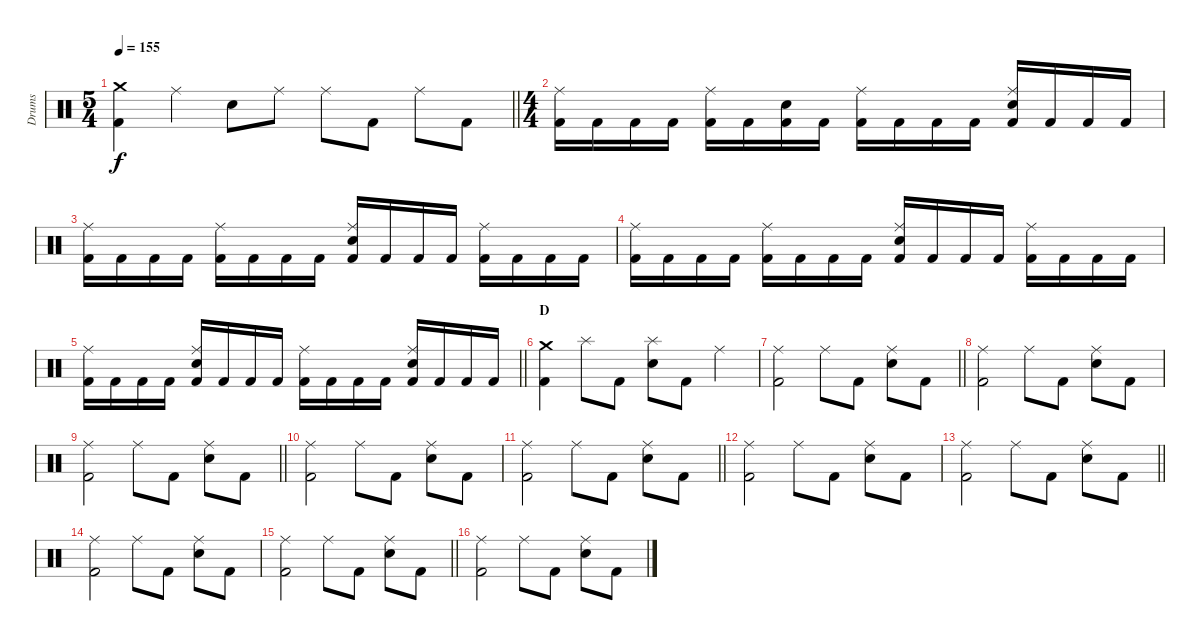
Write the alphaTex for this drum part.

\track ("Drums" "Drums") {instrument percussion}
\staff {score}
\articulation defaults
\ts (5 4)
\tempo 155
\clef neutral
\barLineRight lightlight
\ks c
("Crash medium (hit)" "Kick (hit) 2").4{dy f} "Ride (middle)".4 "Electric Snare (hit)".8 "Ride (middle)".8 "Ride (middle)".8 "Kick (hit) 2".8 "Ride (middle)".8 "Kick (hit) 2".8 |
\ts (4 4)
\section ("" "")
("Ride (middle)" "Kick (hit) 2").16 "Kick (hit) 2".16 "Kick (hit) 2".16 "Kick (hit) 2".16 ("Ride (middle)" "Kick (hit) 2").16 "Kick (hit) 2".16 ("Electric Snare (hit)" "Kick (hit) 2").16 "Kick (hit) 2".16 ("Ride (middle)" "Kick (hit) 2").16 "Kick (hit) 2".16 "Kick (hit) 2".16 "Kick (hit) 2".16 ("Ride (middle)" "Electric Snare (hit)" "Kick (hit) 2").16 "Kick (hit) 2".16 "Kick (hit) 2".16 "Kick (hit) 2".16 |
("Ride (middle)" "Kick (hit) 2").16 "Kick (hit) 2".16 "Kick (hit) 2".16 "Kick (hit) 2".16 ("Ride (middle)" "Kick (hit) 2").16 "Kick (hit) 2".16 "Kick (hit) 2".16 "Kick (hit) 2".16 ("Ride (middle)" "Electric Snare (hit)" "Kick (hit) 2").16 "Kick (hit) 2".16 "Kick (hit) 2".16 "Kick (hit) 2".16 ("Ride (middle)" "Kick (hit) 2").16 "Kick (hit) 2".16 "Kick (hit) 2".16 "Kick (hit) 2".16 |
("Ride (middle)" "Kick (hit) 2").16 "Kick (hit) 2".16 "Kick (hit) 2".16 "Kick (hit) 2".16 ("Ride (middle)" "Kick (hit) 2").16 "Kick (hit) 2".16 "Kick (hit) 2".16 "Kick (hit) 2".16 ("Ride (middle)" "Electric Snare (hit)" "Kick (hit) 2").16 "Kick (hit) 2".16 "Kick (hit) 2".16 "Kick (hit) 2".16 ("Ride (middle)" "Kick (hit) 2").16 "Kick (hit) 2".16 "Kick (hit) 2".16 "Kick (hit) 2".16 |
\barLineRight lightlight
("Ride (middle)" "Kick (hit) 2").16 "Kick (hit) 2".16 "Kick (hit) 2".16 "Kick (hit) 2".16 ("Ride (middle)" "Electric Snare (hit)" "Kick (hit) 2").16 "Kick (hit) 2".16 "Kick (hit) 2".16 "Kick (hit) 2".16 ("Ride (middle)" "Kick (hit) 2").16 "Kick (hit) 2".16 "Kick (hit) 2".16 "Kick (hit) 2".16 ("Ride (middle)" "Electric Snare (hit)" "Kick (hit) 2").16 "Kick (hit) 2".16 "Kick (hit) 2".16 "Kick (hit) 2".16 |
\section ("" "D")
("Crash medium (hit)" "Kick (hit) 2").4 "Splash (hit)".8 "Kick (hit) 2".8 ("Splash (hit)" "Electric Snare (hit)").8 "Kick (hit) 2".8 "Ride (middle)".4 |
\barLineRight lightlight
("Ride (middle)" "Kick (hit) 2").2 "Ride (middle)".8 "Kick (hit) 2".8 ("Ride (middle)" "Electric Snare (hit)").8 "Kick (hit) 2".8 |
("Ride (middle)" "Kick (hit) 2").2 "Ride (middle)".8 "Kick (hit) 2".8 ("Ride (middle)" "Electric Snare (hit)").8 "Kick (hit) 2".8 |
\barLineRight lightlight
("Ride (middle)" "Kick (hit) 2").2 "Ride (middle)".8 "Kick (hit) 2".8 ("Ride (middle)" "Electric Snare (hit)").8 "Kick (hit) 2".8 |
\section ("" "")
("Ride (middle)" "Kick (hit) 2").2 "Ride (middle)".8 "Kick (hit) 2".8 ("Ride (middle)" "Electric Snare (hit)").8 "Kick (hit) 2".8 |
\barLineRight lightlight
("Ride (middle)" "Kick (hit) 2").2 "Ride (middle)".8 "Kick (hit) 2".8 ("Ride (middle)" "Electric Snare (hit)").8 "Kick (hit) 2".8 |
("Ride (middle)" "Kick (hit) 2").2 "Ride (middle)".8 "Kick (hit) 2".8 ("Ride (middle)" "Electric Snare (hit)").8 "Kick (hit) 2".8 |
\barLineRight lightlight
("Ride (middle)" "Kick (hit) 2").2 "Ride (middle)".8 "Kick (hit) 2".8 ("Ride (middle)" "Electric Snare (hit)").8 "Kick (hit) 2".8 |
\section ("" "")
("Ride (middle)" "Kick (hit) 2").2 "Ride (middle)".8 "Kick (hit) 2".8 ("Ride (middle)" "Electric Snare (hit)").8 "Kick (hit) 2".8 |
\barLineRight lightlight
("Ride (middle)" "Kick (hit) 2").2 "Ride (middle)".8 "Kick (hit) 2".8 ("Ride (middle)" "Electric Snare (hit)").8 "Kick (hit) 2".8 |
("Ride (middle)" "Kick (hit) 2").2 "Ride (middle)".8 "Kick (hit) 2".8 ("Ride (middle)" "Electric Snare (hit)").8 "Kick (hit) 2".8
